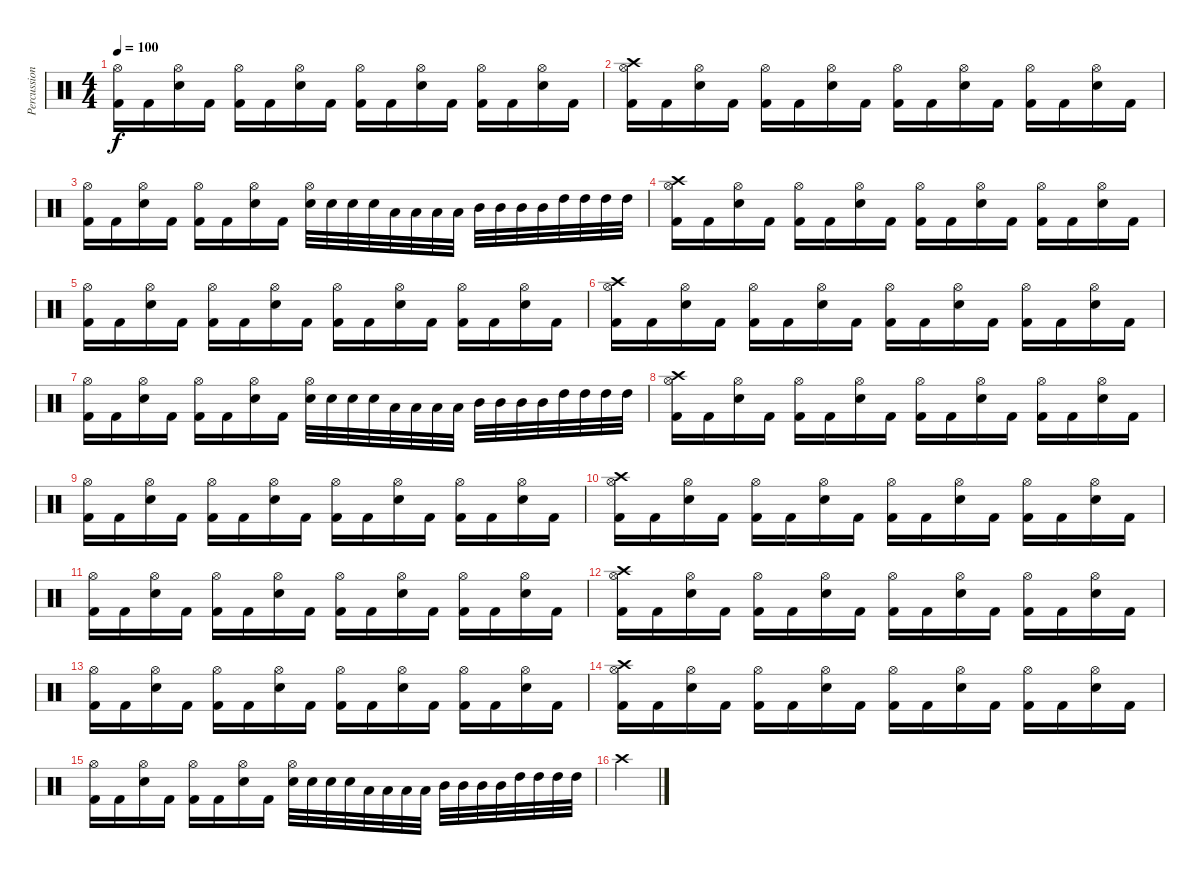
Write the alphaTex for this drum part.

\track ("Percussion" "Percussion") {instrument percussion}
\staff {score}
\articulation defaults
\ts (4 4)
\tempo 100
\clef neutral
\ks c
("Hi-Hat (open)" "Kick (hit) 2").16{dy f} "Kick (hit) 2".16 ("Hi-Hat (open)" "Snare (hit) 2").16 "Kick (hit) 2".16 ("Hi-Hat (open)" "Kick (hit) 2").16 "Kick (hit) 2".16 ("Hi-Hat (open)" "Snare (hit) 2").16 "Kick (hit) 2".16 ("Hi-Hat (open)" "Kick (hit) 2").16 "Kick (hit) 2".16 ("Hi-Hat (open)" "Snare (hit) 2").16 "Kick (hit) 2".16 ("Hi-Hat (open)" "Kick (hit) 2").16 "Kick (hit) 2".16 ("Hi-Hat (open)" "Snare (hit) 2").16 "Kick (hit) 2".16 |
("Hi-Hat (open)" "Crash high (hit)" "Kick (hit) 2").16 "Kick (hit) 2".16 ("Hi-Hat (open)" "Snare (hit) 2").16 "Kick (hit) 2".16 ("Hi-Hat (open)" "Kick (hit) 2").16 "Kick (hit) 2".16 ("Hi-Hat (open)" "Snare (hit) 2").16 "Kick (hit) 2".16 ("Hi-Hat (open)" "Kick (hit) 2").16 "Kick (hit) 2".16 ("Hi-Hat (open)" "Snare (hit) 2").16 "Kick (hit) 2".16 ("Hi-Hat (open)" "Kick (hit) 2").16 "Kick (hit) 2".16 ("Hi-Hat (open)" "Snare (hit) 2").16 "Kick (hit) 2".16 |
("Hi-Hat (open)" "Kick (hit) 2").16 "Kick (hit) 2".16 ("Hi-Hat (open)" "Snare (hit) 2").16 "Kick (hit) 2".16 ("Hi-Hat (open)" "Kick (hit) 2").16 "Kick (hit) 2".16 ("Hi-Hat (open)" "Snare (hit) 2").16 "Kick (hit) 2".16 ("Hi-Hat (open)" "Snare (hit) 2").32 "Snare (hit) 2".32 "Snare (hit) 2".32 "Snare (hit) 2".32 "Low Tom (hit)".32 "Low Tom (hit)".32 "Low Tom (hit)".32 "Low Tom (hit)".32 "Mid Tom (hit)".32 "Mid Tom (hit)".32 "Mid Tom (hit)".32 "Mid Tom (hit)".32 "High Tom (hit)".32 "High Tom (hit)".32 "High Tom (hit)".32 "High Tom (hit)".32 |
("Hi-Hat (open)" "Crash high (hit)" "Kick (hit) 2").16 "Kick (hit) 2".16 ("Hi-Hat (open)" "Snare (hit) 2").16 "Kick (hit) 2".16 ("Hi-Hat (open)" "Kick (hit) 2").16 "Kick (hit) 2".16 ("Hi-Hat (open)" "Snare (hit) 2").16 "Kick (hit) 2".16 ("Hi-Hat (open)" "Kick (hit) 2").16 "Kick (hit) 2".16 ("Hi-Hat (open)" "Snare (hit) 2").16 "Kick (hit) 2".16 ("Hi-Hat (open)" "Kick (hit) 2").16 "Kick (hit) 2".16 ("Hi-Hat (open)" "Snare (hit) 2").16 "Kick (hit) 2".16 |
("Hi-Hat (open)" "Kick (hit) 2").16 "Kick (hit) 2".16 ("Hi-Hat (open)" "Snare (hit) 2").16 "Kick (hit) 2".16 ("Hi-Hat (open)" "Kick (hit) 2").16 "Kick (hit) 2".16 ("Hi-Hat (open)" "Snare (hit) 2").16 "Kick (hit) 2".16 ("Hi-Hat (open)" "Kick (hit) 2").16 "Kick (hit) 2".16 ("Hi-Hat (open)" "Snare (hit) 2").16 "Kick (hit) 2".16 ("Hi-Hat (open)" "Kick (hit) 2").16 "Kick (hit) 2".16 ("Hi-Hat (open)" "Snare (hit) 2").16 "Kick (hit) 2".16 |
("Hi-Hat (open)" "Crash high (hit)" "Kick (hit) 2").16 "Kick (hit) 2".16 ("Hi-Hat (open)" "Snare (hit) 2").16 "Kick (hit) 2".16 ("Hi-Hat (open)" "Kick (hit) 2").16 "Kick (hit) 2".16 ("Hi-Hat (open)" "Snare (hit) 2").16 "Kick (hit) 2".16 ("Hi-Hat (open)" "Kick (hit) 2").16 "Kick (hit) 2".16 ("Hi-Hat (open)" "Snare (hit) 2").16 "Kick (hit) 2".16 ("Hi-Hat (open)" "Kick (hit) 2").16 "Kick (hit) 2".16 ("Hi-Hat (open)" "Snare (hit) 2").16 "Kick (hit) 2".16 |
("Hi-Hat (open)" "Kick (hit) 2").16 "Kick (hit) 2".16 ("Hi-Hat (open)" "Snare (hit) 2").16 "Kick (hit) 2".16 ("Hi-Hat (open)" "Kick (hit) 2").16 "Kick (hit) 2".16 ("Hi-Hat (open)" "Snare (hit) 2").16 "Kick (hit) 2".16 ("Hi-Hat (open)" "Snare (hit) 2").32 "Snare (hit) 2".32 "Snare (hit) 2".32 "Snare (hit) 2".32 "Low Tom (hit)".32 "Low Tom (hit)".32 "Low Tom (hit)".32 "Low Tom (hit)".32 "Mid Tom (hit)".32 "Mid Tom (hit)".32 "Mid Tom (hit)".32 "Mid Tom (hit)".32 "High Tom (hit)".32 "High Tom (hit)".32 "High Tom (hit)".32 "High Tom (hit)".32 |
("Hi-Hat (open)" "Crash high (hit)" "Kick (hit) 2").16 "Kick (hit) 2".16 ("Hi-Hat (open)" "Snare (hit) 2").16 "Kick (hit) 2".16 ("Hi-Hat (open)" "Kick (hit) 2").16 "Kick (hit) 2".16 ("Hi-Hat (open)" "Snare (hit) 2").16 "Kick (hit) 2".16 ("Hi-Hat (open)" "Kick (hit) 2").16 "Kick (hit) 2".16 ("Hi-Hat (open)" "Snare (hit) 2").16 "Kick (hit) 2".16 ("Hi-Hat (open)" "Kick (hit) 2").16 "Kick (hit) 2".16 ("Hi-Hat (open)" "Snare (hit) 2").16 "Kick (hit) 2".16 |
("Hi-Hat (open)" "Kick (hit) 2").16 "Kick (hit) 2".16 ("Hi-Hat (open)" "Snare (hit) 2").16 "Kick (hit) 2".16 ("Hi-Hat (open)" "Kick (hit) 2").16 "Kick (hit) 2".16 ("Hi-Hat (open)" "Snare (hit) 2").16 "Kick (hit) 2".16 ("Hi-Hat (open)" "Kick (hit) 2").16 "Kick (hit) 2".16 ("Hi-Hat (open)" "Snare (hit) 2").16 "Kick (hit) 2".16 ("Hi-Hat (open)" "Kick (hit) 2").16 "Kick (hit) 2".16 ("Hi-Hat (open)" "Snare (hit) 2").16 "Kick (hit) 2".16 |
("Hi-Hat (open)" "Crash high (hit)" "Kick (hit) 2").16 "Kick (hit) 2".16 ("Hi-Hat (open)" "Snare (hit) 2").16 "Kick (hit) 2".16 ("Hi-Hat (open)" "Kick (hit) 2").16 "Kick (hit) 2".16 ("Hi-Hat (open)" "Snare (hit) 2").16 "Kick (hit) 2".16 ("Hi-Hat (open)" "Kick (hit) 2").16 "Kick (hit) 2".16 ("Hi-Hat (open)" "Snare (hit) 2").16 "Kick (hit) 2".16 ("Hi-Hat (open)" "Kick (hit) 2").16 "Kick (hit) 2".16 ("Hi-Hat (open)" "Snare (hit) 2").16 "Kick (hit) 2".16 |
("Hi-Hat (open)" "Kick (hit) 2").16 "Kick (hit) 2".16 ("Hi-Hat (open)" "Snare (hit) 2").16 "Kick (hit) 2".16 ("Hi-Hat (open)" "Kick (hit) 2").16 "Kick (hit) 2".16 ("Hi-Hat (open)" "Snare (hit) 2").16 "Kick (hit) 2".16 ("Hi-Hat (open)" "Kick (hit) 2").16 "Kick (hit) 2".16 ("Hi-Hat (open)" "Snare (hit) 2").16 "Kick (hit) 2".16 ("Hi-Hat (open)" "Kick (hit) 2").16 "Kick (hit) 2".16 ("Hi-Hat (open)" "Snare (hit) 2").16 "Kick (hit) 2".16 |
("Hi-Hat (open)" "Crash high (hit)" "Kick (hit) 2").16 "Kick (hit) 2".16 ("Hi-Hat (open)" "Snare (hit) 2").16 "Kick (hit) 2".16 ("Hi-Hat (open)" "Kick (hit) 2").16 "Kick (hit) 2".16 ("Hi-Hat (open)" "Snare (hit) 2").16 "Kick (hit) 2".16 ("Hi-Hat (open)" "Kick (hit) 2").16 "Kick (hit) 2".16 ("Hi-Hat (open)" "Snare (hit) 2").16 "Kick (hit) 2".16 ("Hi-Hat (open)" "Kick (hit) 2").16 "Kick (hit) 2".16 ("Hi-Hat (open)" "Snare (hit) 2").16 "Kick (hit) 2".16 |
("Hi-Hat (open)" "Kick (hit) 2").16 "Kick (hit) 2".16 ("Hi-Hat (open)" "Snare (hit) 2").16 "Kick (hit) 2".16 ("Hi-Hat (open)" "Kick (hit) 2").16 "Kick (hit) 2".16 ("Hi-Hat (open)" "Snare (hit) 2").16 "Kick (hit) 2".16 ("Hi-Hat (open)" "Kick (hit) 2").16 "Kick (hit) 2".16 ("Hi-Hat (open)" "Snare (hit) 2").16 "Kick (hit) 2".16 ("Hi-Hat (open)" "Kick (hit) 2").16 "Kick (hit) 2".16 ("Hi-Hat (open)" "Snare (hit) 2").16 "Kick (hit) 2".16 |
("Hi-Hat (open)" "Crash high (hit)" "Kick (hit) 2").16 "Kick (hit) 2".16 ("Hi-Hat (open)" "Snare (hit) 2").16 "Kick (hit) 2".16 ("Hi-Hat (open)" "Kick (hit) 2").16 "Kick (hit) 2".16 ("Hi-Hat (open)" "Snare (hit) 2").16 "Kick (hit) 2".16 ("Hi-Hat (open)" "Kick (hit) 2").16 "Kick (hit) 2".16 ("Hi-Hat (open)" "Snare (hit) 2").16 "Kick (hit) 2".16 ("Hi-Hat (open)" "Kick (hit) 2").16 "Kick (hit) 2".16 ("Hi-Hat (open)" "Snare (hit) 2").16 "Kick (hit) 2".16 |
("Hi-Hat (open)" "Kick (hit) 2").16 "Kick (hit) 2".16 ("Hi-Hat (open)" "Snare (hit) 2").16 "Kick (hit) 2".16 ("Hi-Hat (open)" "Kick (hit) 2").16 "Kick (hit) 2".16 ("Hi-Hat (open)" "Snare (hit) 2").16 "Kick (hit) 2".16 ("Hi-Hat (open)" "Snare (hit) 2").32 "Snare (hit) 2".32 "Snare (hit) 2".32 "Snare (hit) 2".32 "Low Tom (hit)".32 "Low Tom (hit)".32 "Low Tom (hit)".32 "Low Tom (hit)".32 "Mid Tom (hit)".32 "Mid Tom (hit)".32 "Mid Tom (hit)".32 "Mid Tom (hit)".32 "High Tom (hit)".32 "High Tom (hit)".32 "High Tom (hit)".32 "High Tom (hit)".32 |
"Crash high (hit)".4
